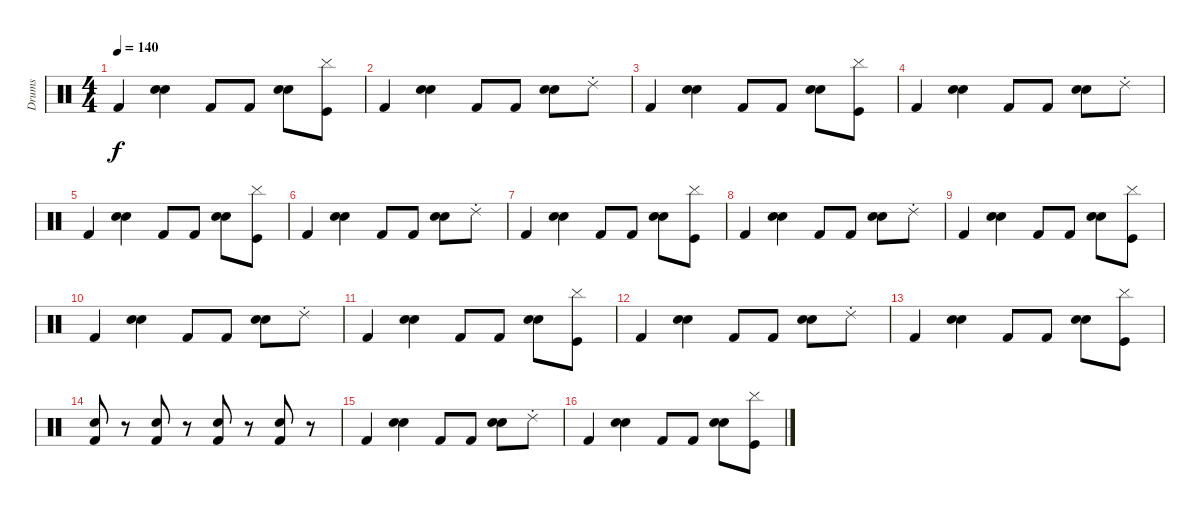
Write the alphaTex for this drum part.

\track ("Drums" "Drums") {instrument percussion}
\staff {score}
\articulation defaults
\ts (4 4)
\tempo 140
\clef neutral
\ks c "Kick (hit) 2".4{dy f}
("Hand Clap (hit)" "Electric Snare (hit)").4 "Kick (hit) 2".8 "Kick (hit) 2".8 ("Hand Clap (hit)" "Electric Snare (hit)").8 ("Kick (hit)" "Cymbal (hit)").8 |
"Kick (hit) 2".4 ("Hand Clap (hit)" "Electric Snare (hit)").4 "Kick (hit) 2".8 "Kick (hit) 2".8 ("Hand Clap (hit)" "Electric Snare (hit)").8 "Ride (choke) 2".8 |
"Kick (hit) 2".4 ("Hand Clap (hit)" "Electric Snare (hit)").4 "Kick (hit) 2".8 "Kick (hit) 2".8 ("Hand Clap (hit)" "Electric Snare (hit)").8 ("Kick (hit)" "Cymbal (hit)").8 |
"Kick (hit) 2".4 ("Hand Clap (hit)" "Electric Snare (hit)").4 "Kick (hit) 2".8 "Kick (hit) 2".8 ("Hand Clap (hit)" "Electric Snare (hit)").8 "Ride (choke) 2".8 |
"Kick (hit) 2".4 ("Hand Clap (hit)" "Electric Snare (hit)").4 "Kick (hit) 2".8 "Kick (hit) 2".8 ("Hand Clap (hit)" "Electric Snare (hit)").8 ("Kick (hit)" "Cymbal (hit)").8 |
"Kick (hit) 2".4 ("Hand Clap (hit)" "Electric Snare (hit)").4 "Kick (hit) 2".8 "Kick (hit) 2".8 ("Hand Clap (hit)" "Electric Snare (hit)").8 "Ride (choke) 2".8 |
"Kick (hit) 2".4 ("Hand Clap (hit)" "Electric Snare (hit)").4 "Kick (hit) 2".8 "Kick (hit) 2".8 ("Hand Clap (hit)" "Electric Snare (hit)").8 ("Kick (hit)" "Cymbal (hit)").8 |
"Kick (hit) 2".4 ("Hand Clap (hit)" "Electric Snare (hit)").4 "Kick (hit) 2".8 "Kick (hit) 2".8 ("Hand Clap (hit)" "Electric Snare (hit)").8 "Ride (choke) 2".8 |
"Kick (hit) 2".4 ("Hand Clap (hit)" "Electric Snare (hit)").4 "Kick (hit) 2".8 "Kick (hit) 2".8 ("Hand Clap (hit)" "Electric Snare (hit)").8 ("Kick (hit)" "Cymbal (hit)").8 |
"Kick (hit) 2".4 ("Hand Clap (hit)" "Electric Snare (hit)").4 "Kick (hit) 2".8 "Kick (hit) 2".8 ("Hand Clap (hit)" "Electric Snare (hit)").8 "Ride (choke) 2".8 |
"Kick (hit) 2".4 ("Hand Clap (hit)" "Electric Snare (hit)").4 "Kick (hit) 2".8 "Kick (hit) 2".8 ("Hand Clap (hit)" "Electric Snare (hit)").8 ("Kick (hit)" "Cymbal (hit)").8 |
"Kick (hit) 2".4 ("Hand Clap (hit)" "Electric Snare (hit)").4 "Kick (hit) 2".8 "Kick (hit) 2".8 ("Hand Clap (hit)" "Electric Snare (hit)").8 "Ride (choke) 2".8 |
"Kick (hit) 2".4 ("Hand Clap (hit)" "Electric Snare (hit)").4 "Kick (hit) 2".8 "Kick (hit) 2".8 ("Hand Clap (hit)" "Electric Snare (hit)").8 ("Kick (hit)" "Cymbal (hit)").8 |
("Kick (hit) 2" "Hand Clap (hit)").8 r.8 ("Kick (hit) 2" "Hand Clap (hit)").8 r.8 ("Kick (hit) 2" "Hand Clap (hit)").8 r.8 ("Kick (hit) 2" "Hand Clap (hit)").8 r.8 |
"Kick (hit) 2".4 ("Hand Clap (hit)" "Electric Snare (hit)").4 "Kick (hit) 2".8 "Kick (hit) 2".8 ("Hand Clap (hit)" "Electric Snare (hit)").8 "Ride (choke) 2".8 |
"Kick (hit) 2".4 ("Hand Clap (hit)" "Electric Snare (hit)").4 "Kick (hit) 2".8 "Kick (hit) 2".8 ("Hand Clap (hit)" "Electric Snare (hit)").8 ("Kick (hit)" "Cymbal (hit)").8
